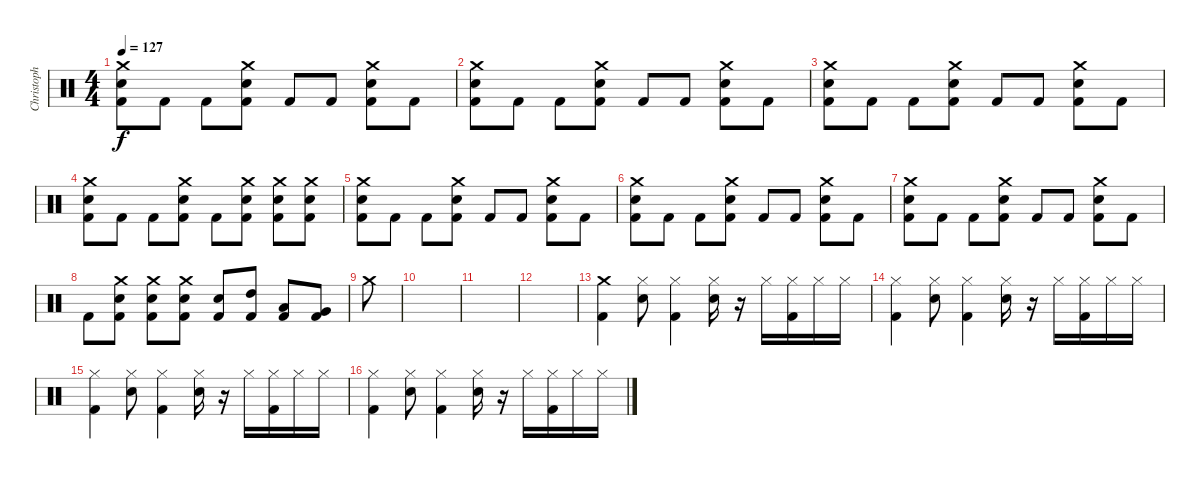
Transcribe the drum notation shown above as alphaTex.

\track ("Christoph Schneider - Drums" "Christoph ") {instrument percussion}
\staff {score}
\articulation defaults
\ts (4 4)
\tempo 127
\clef neutral
\ks c
("Crash medium (hit)" "Electric Snare (hit)" "Kick (hit) 2").8{dy f} "Kick (hit) 2".8 "Kick (hit) 2".8 ("Crash medium (hit)" "Electric Snare (hit)" "Kick (hit) 2").8 "Kick (hit) 2".8 "Kick (hit) 2".8 ("Crash medium (hit)" "Electric Snare (hit)" "Kick (hit) 2").8 "Kick (hit) 2".8 |
("Crash medium (hit)" "Electric Snare (hit)" "Kick (hit) 2").8 "Kick (hit) 2".8 "Kick (hit) 2".8 ("Crash medium (hit)" "Electric Snare (hit)" "Kick (hit) 2").8 "Kick (hit) 2".8 "Kick (hit) 2".8 ("Crash medium (hit)" "Electric Snare (hit)" "Kick (hit) 2").8 "Kick (hit) 2".8 |
("Crash medium (hit)" "Electric Snare (hit)" "Kick (hit) 2").8 "Kick (hit) 2".8 "Kick (hit) 2".8 ("Crash medium (hit)" "Electric Snare (hit)" "Kick (hit) 2").8 "Kick (hit) 2".8 "Kick (hit) 2".8 ("Crash medium (hit)" "Electric Snare (hit)" "Kick (hit) 2").8 "Kick (hit) 2".8 |
("Crash medium (hit)" "Electric Snare (hit)" "Kick (hit) 2").8 "Kick (hit) 2".8 "Kick (hit) 2".8 ("Crash medium (hit)" "Electric Snare (hit)" "Kick (hit) 2").8 "Kick (hit) 2".8 ("Crash medium (hit)" "Electric Snare (hit)" "Kick (hit) 2").8 ("Crash medium (hit)" "Electric Snare (hit)" "Kick (hit) 2").8 ("Crash medium (hit)" "Electric Snare (hit)" "Kick (hit) 2").8 |
("Crash medium (hit)" "Electric Snare (hit)" "Kick (hit) 2").8 "Kick (hit) 2".8 "Kick (hit) 2".8 ("Crash medium (hit)" "Electric Snare (hit)" "Kick (hit) 2").8 "Kick (hit) 2".8 "Kick (hit) 2".8 ("Crash medium (hit)" "Electric Snare (hit)" "Kick (hit) 2").8 "Kick (hit) 2".8 |
("Crash medium (hit)" "Electric Snare (hit)" "Kick (hit) 2").8 "Kick (hit) 2".8 "Kick (hit) 2".8 ("Crash medium (hit)" "Electric Snare (hit)" "Kick (hit) 2").8 "Kick (hit) 2".8 "Kick (hit) 2".8 ("Crash medium (hit)" "Electric Snare (hit)" "Kick (hit) 2").8 "Kick (hit) 2".8 |
("Crash medium (hit)" "Electric Snare (hit)" "Kick (hit) 2").8 "Kick (hit) 2".8 "Kick (hit) 2".8 ("Crash medium (hit)" "Electric Snare (hit)" "Kick (hit) 2").8 "Kick (hit) 2".8 "Kick (hit) 2".8 ("Crash medium (hit)" "Electric Snare (hit)" "Kick (hit) 2").8 "Kick (hit) 2".8 |
"Kick (hit) 2".8 ("Crash medium (hit)" "Electric Snare (hit)" "Kick (hit) 2").8 ("Crash medium (hit)" "Electric Snare (hit)" "Kick (hit) 2").8 ("Crash medium (hit)" "Electric Snare (hit)" "Kick (hit) 2").8 ("Electric Snare (hit)" "Kick (hit) 2").8 ("High Tom (hit)" "Kick (hit) 2").8 ("Low Tom (hit)" "Kick (hit) 2").8 ("Very Low Tom (hit)" "Kick (hit) 2").8 |
"Crash medium (hit)".8 |
|
|
|
("Crash medium (hit)" "Kick (hit) 2").4 ("Hi-Hat (closed)" "Electric Snare (hit)").8 ("Hi-Hat (closed)" "Kick (hit) 2").4 ("Hi-Hat (closed)" "Electric Snare (hit)").16 r.16 "Hi-Hat (closed)".16 ("Hi-Hat (closed)" "Kick (hit) 2").16 "Hi-Hat (closed)".16 "Hi-Hat (closed)".16 |
("Hi-Hat (closed)" "Kick (hit) 2").4 ("Hi-Hat (closed)" "Electric Snare (hit)").8 ("Hi-Hat (closed)" "Kick (hit) 2").4 ("Hi-Hat (closed)" "Electric Snare (hit)").16 r.16 "Hi-Hat (closed)".16 ("Hi-Hat (closed)" "Kick (hit) 2").16 "Hi-Hat (closed)".16 "Hi-Hat (closed)".16 |
("Hi-Hat (closed)" "Kick (hit) 2").4 ("Hi-Hat (closed)" "Electric Snare (hit)").8 ("Hi-Hat (closed)" "Kick (hit) 2").4 ("Hi-Hat (closed)" "Electric Snare (hit)").16 r.16 "Hi-Hat (closed)".16 ("Hi-Hat (closed)" "Kick (hit) 2").16 "Hi-Hat (closed)".16 "Hi-Hat (closed)".16 |
("Hi-Hat (closed)" "Kick (hit) 2").4 ("Hi-Hat (closed)" "Electric Snare (hit)").8 ("Hi-Hat (closed)" "Kick (hit) 2").4 ("Hi-Hat (closed)" "Electric Snare (hit)").16 r.16 "Hi-Hat (closed)".16 ("Hi-Hat (closed)" "Kick (hit) 2").16 "Hi-Hat (closed)".16 "Hi-Hat (closed)".16
